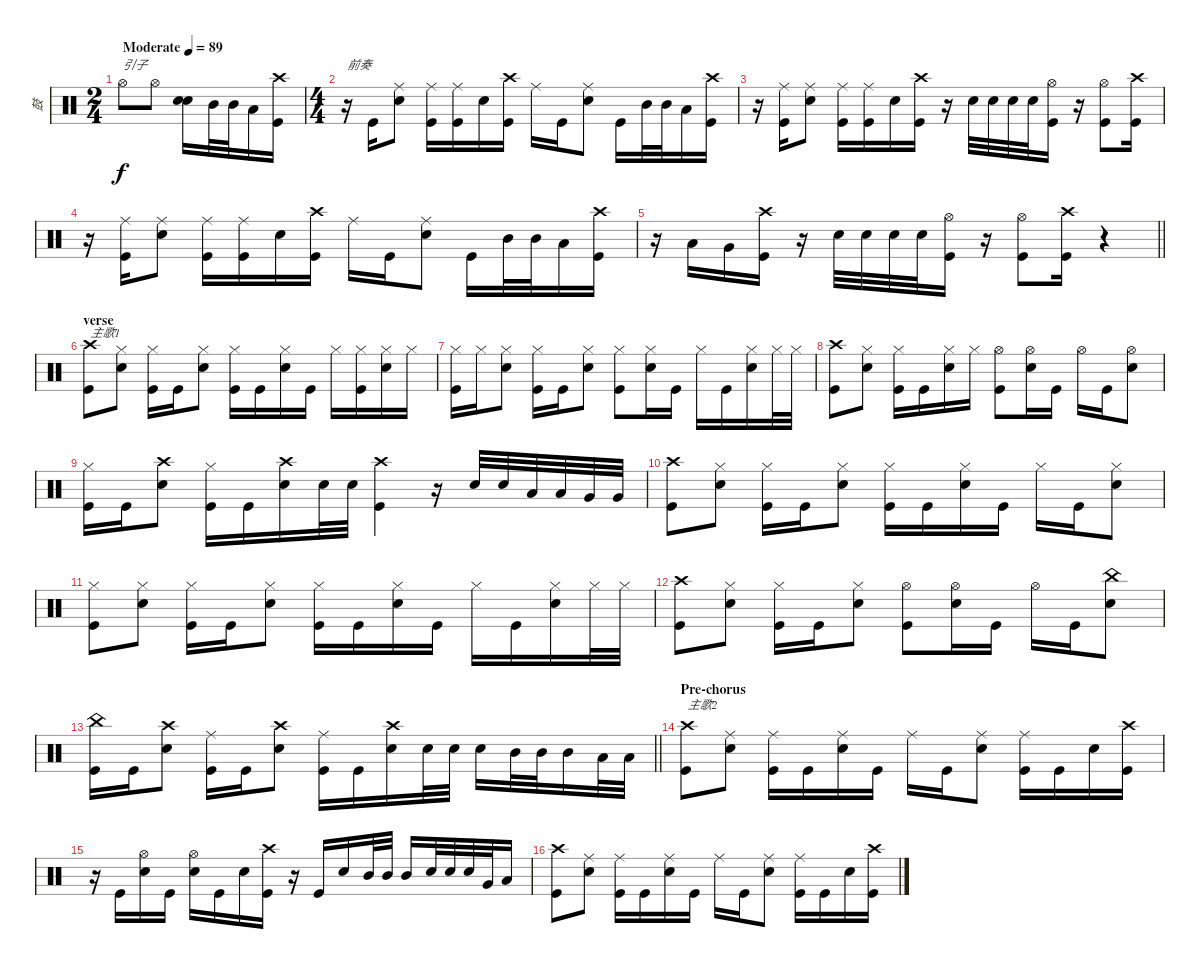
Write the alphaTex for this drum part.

\track ("鼓" "鼓") {instrument percussion}
\staff {score}
\articulation defaults
\ts (2 4)
\tempo (89 "Moderate")
\clef neutral
\ks c "Hi-Hat (open)".8{txt "引子" dy f} "Hi-Hat (open)".8
("Snare (hit) 2" "Snare (hit) 2").16 "Mid Tom (hit)".32 "Mid Tom (hit)".32 "Low Tom (hit)".16 ("Kick (hit)" "Crash high (hit)").16 |
\ts (4 4)
r.16{txt "前奏"} "Kick (hit)".16 ("Ride (middle)" "Snare (hit) 2").8 ("Kick (hit)" "Ride (middle)").16 ("Kick (hit)" "Ride (middle)").16 "Snare (hit) 2".16 ("Kick (hit)" "Crash high (hit)").16 "Ride (middle)".16 "Kick (hit)".16 ("Ride (middle)" "Snare (hit) 2").8 "Kick (hit)".16 "Mid Tom (hit)".32 "Mid Tom (hit)".32 "Low Tom (hit)".16 ("Kick (hit)" "Crash high (hit)").16 |
r.16 ("Kick (hit)" "Ride (middle)").16 ("Ride (middle)" "Snare (hit) 2").8 ("Kick (hit)" "Ride (middle)").16 ("Kick (hit)" "Ride (middle)").16 "Snare (hit) 2".16 ("Kick (hit)" "Crash high (hit)").16 r.16 "Snare (hit) 2".32 "Snare (hit) 2".32 "Snare (hit) 2".32 "Snare (hit) 2".32 ("Hi-Hat (open)" "Kick (hit)").16 r.16 ("Hi-Hat (open)" "Kick (hit)").8 ("Kick (hit)" "Crash high (hit)").16 |
r.16 ("Kick (hit)" "Ride (middle)").16 ("Ride (middle)" "Snare (hit) 2").8 ("Kick (hit)" "Ride (middle)").16 ("Kick (hit)" "Ride (middle)").16 "Snare (hit) 2".16 ("Kick (hit)" "Crash high (hit)").16 "Ride (middle)".16 "Kick (hit)".16 ("Ride (middle)" "Snare (hit) 2").8 "Kick (hit)".16 "Mid Tom (hit)".32 "Mid Tom (hit)".32 "Low Tom (hit)".16 ("Kick (hit)" "Crash high (hit)").16 |
\barLineRight lightlight
r.16 "Low Tom (hit)".16 "Very Low Tom (hit)".16 ("Kick (hit)" "Crash high (hit)").16 r.16 "Snare (hit) 2".32 "Snare (hit) 2".32 "Snare (hit) 2".32 "Snare (hit) 2".32 ("Kick (hit)" "Hi-Hat (open)").16 r.16 ("Hi-Hat (open)" "Kick (hit)").8 ("Kick (hit)" "Crash high (hit)").16 r.4 |
\section ("" "verse")
("Crash high (hit)" "Kick (hit)").8{txt "主歌1"} ("Snare (hit) 2" "Hi-Hat (closed)").8 ("Kick (hit)" "Hi-Hat (closed)").16 "Kick (hit)".16 ("Snare (hit) 2" "Hi-Hat (closed)").8 ("Kick (hit)" "Hi-Hat (closed)").16 "Kick (hit)".16 ("Snare (hit) 2" "Hi-Hat (closed)").16 "Kick (hit)".16 "Hi-Hat (closed)".16 ("Kick (hit)" "Hi-Hat (closed)").16 ("Snare (hit) 2" "Hi-Hat (closed)").16 "Hi-Hat (closed)".16 |
("Hi-Hat (closed)" "Kick (hit)").16 "Hi-Hat (closed)".16 ("Snare (hit) 2" "Hi-Hat (closed)").8 ("Kick (hit)" "Hi-Hat (closed)").16 "Kick (hit)".16 ("Snare (hit) 2" "Hi-Hat (closed)").8 ("Kick (hit)" "Hi-Hat (closed)").8 ("Snare (hit) 2" "Hi-Hat (closed)").16 "Kick (hit)".16 "Hi-Hat (closed)".16 "Kick (hit)".16 ("Snare (hit) 2" "Hi-Hat (closed)").16 "Hi-Hat (closed)".32 "Hi-Hat (closed)".32 |
("Crash high (hit)" "Kick (hit)").8 ("Snare (hit) 2" "Hi-Hat (closed)").8 ("Kick (hit)" "Hi-Hat (closed)").16 "Kick (hit)".16 ("Snare (hit) 2" "Hi-Hat (closed)").16 "Hi-Hat (closed)".16 ("Kick (hit)" "Hi-Hat (open)").8 ("Snare (hit) 2" "Hi-Hat (open)").16 "Kick (hit)".16 "Hi-Hat (open)".16 "Kick (hit)".16 ("Snare (hit) 2" "Hi-Hat (open)").8 |
("Hi-Hat (closed)" "Kick (hit)").16 "Kick (hit)".16 ("Snare (hit) 2" "Crash high (hit)").8 ("Hi-Hat (closed)" "Kick (hit)").16 "Kick (hit)".16 ("Snare (hit) 2" "Crash high (hit)").16 "Snare (hit) 2".32 "Snare (hit) 2".32 ("Kick (hit)" "Crash high (hit)").4 r.16 "Snare (hit) 2".32 "Snare (hit) 2".32 "Low Tom (hit)".32 "Low Tom (hit)".32 "Very Low Tom (hit)".32 "Very Low Tom (hit)".32 |
("Crash high (hit)" "Kick (hit)").8 ("Snare (hit) 2" "Hi-Hat (closed)").8 ("Kick (hit)" "Hi-Hat (closed)").16 "Kick (hit)".16 ("Snare (hit) 2" "Hi-Hat (closed)").8 ("Kick (hit)" "Hi-Hat (closed)").16 "Kick (hit)".16 ("Snare (hit) 2" "Hi-Hat (closed)").16 "Kick (hit)".16 "Hi-Hat (closed)".16 "Kick (hit)".16 ("Snare (hit) 2" "Hi-Hat (closed)").8 |
("Hi-Hat (closed)" "Kick (hit)").8 ("Snare (hit) 2" "Hi-Hat (closed)").8 ("Kick (hit)" "Hi-Hat (closed)").16 "Kick (hit)".16 ("Snare (hit) 2" "Hi-Hat (closed)").8 ("Kick (hit)" "Hi-Hat (closed)").16 "Kick (hit)".16 ("Snare (hit) 2" "Hi-Hat (closed)").16 "Kick (hit)".16 "Hi-Hat (closed)".16 "Kick (hit)".16 ("Snare (hit) 2" "Hi-Hat (closed)").16 "Hi-Hat (closed)".32 "Hi-Hat (closed)".32 |
("Crash high (hit)" "Kick (hit)").8 ("Snare (hit) 2" "Hi-Hat (closed)").8 ("Kick (hit)" "Hi-Hat (closed)").16 "Kick (hit)".16 ("Snare (hit) 2" "Hi-Hat (closed)").8 ("Kick (hit)" "Hi-Hat (open)").8 ("Snare (hit) 2" "Hi-Hat (open)").16 "Kick (hit)".16 "Hi-Hat (open)".16 "Kick (hit)".16 ("Snare (hit) 2" "China (hit)").8 |
\barLineRight lightlight
("China (hit)" "Kick (hit)").16 "Kick (hit)".16 ("Snare (hit) 2" "Crash high (hit)").8 ("Ride (middle)" "Kick (hit)").16 "Kick (hit)".16 ("Snare (hit) 2" "Crash high (hit)").8 ("Ride (middle)" "Kick (hit)").16 "Kick (hit)".16 ("Snare (hit) 2" "Crash high (hit)").16 "Snare (hit) 2".32 "Snare (hit) 2".32 "Snare (hit) 2".16 "Mid Tom (hit)".32 "Mid Tom (hit)".32 "Mid Tom (hit)".16 "Low Tom (hit)".32 "Low Tom (hit)".32 |
\section ("" "Pre-chorus")
("Crash high (hit)" "Kick (hit)").8{txt "主歌2"} ("Ride (middle)" "Snare (hit) 2").8 ("Ride (middle)" "Kick (hit)").16 "Kick (hit)".16 ("Snare (hit) 2" "Ride (middle)").16 "Kick (hit)".16 "Ride (middle)".16 "Kick (hit)".16 ("Snare (hit) 2" "Ride (middle)").8 ("Ride (middle)" "Kick (hit)").16 "Kick (hit)".16 "Snare (hit) 2".16 ("Crash high (hit)" "Kick (hit)").16 |
r.16 "Kick (hit)".16 ("Snare (hit) 2" "Hi-Hat (open)").16 "Kick (hit)".16 ("Snare (hit) 2" "Hi-Hat (open)").16 "Kick (hit)".16 "Snare (hit) 2".16 ("Kick (hit)" "Crash high (hit)").16 r.16 "Kick (hit)".16 "Snare (hit) 2".16 "Mid Tom (hit)".32 "Mid Tom (hit)".32 "Mid Tom (hit)".16 "Snare (hit) 2".32 "Snare (hit) 2".32 "Snare (hit) 2".32 "Very Low Tom (hit)".32 "Low Floor Tom (hit)".16 |
("Crash high (hit)" "Kick (hit)").8 ("Ride (middle)" "Snare (hit) 2").8 ("Ride (middle)" "Kick (hit)").16 "Kick (hit)".16 ("Snare (hit) 2" "Ride (middle)").16 "Kick (hit)".16 "Ride (middle)".16 "Kick (hit)".16 ("Snare (hit) 2" "Ride (middle)").8 ("Ride (middle)" "Kick (hit)").16 "Kick (hit)".16 "Snare (hit) 2".16 ("Crash high (hit)" "Kick (hit)").16
